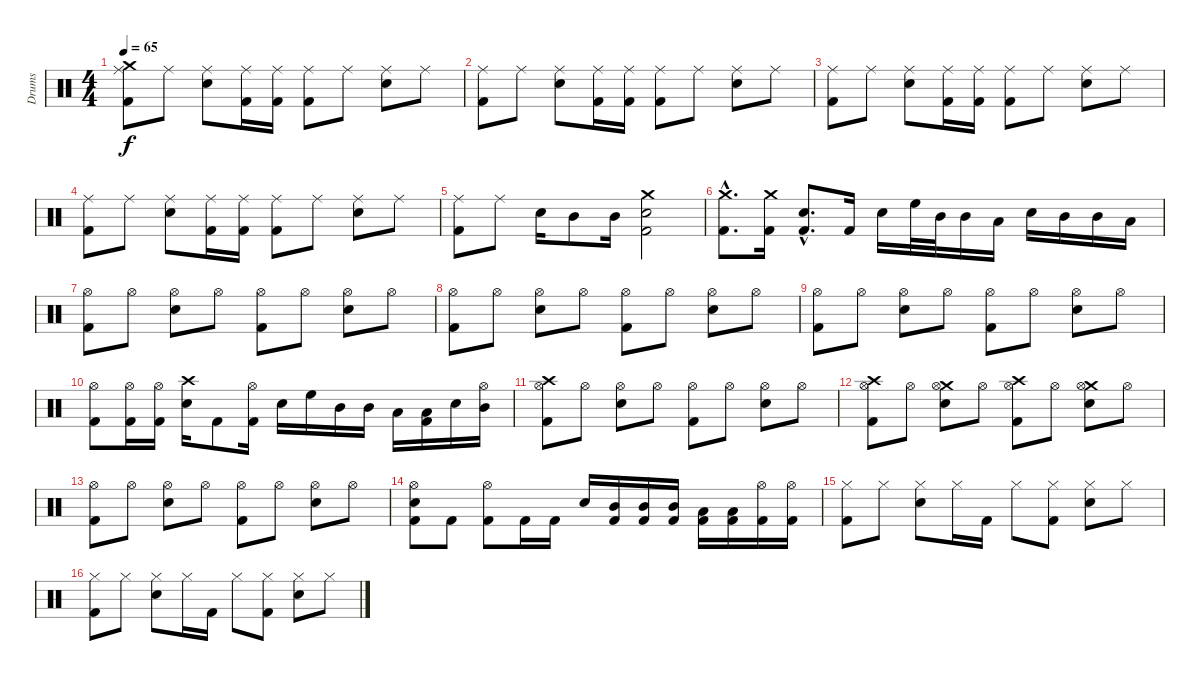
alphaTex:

\track ("Drums" "Drums") {instrument percussion}
\staff {score}
\articulation defaults
\ts (4 4)
\tempo 65
\clef neutral
\ks c
("Crash medium (hit)" "Ride (middle)" "Kick (hit) 2").8{dy f} "Ride (middle)".8 ("Ride (middle)" "Electric Snare (hit)").8 ("Ride (middle)" "Kick (hit) 2").16 ("Ride (middle)" "Kick (hit) 2").16 ("Ride (middle)" "Kick (hit) 2").8 "Ride (middle)".8 ("Ride (middle)" "Electric Snare (hit)").8 "Ride (middle)".8 |
("Ride (middle)" "Kick (hit) 2").8 "Ride (middle)".8 ("Ride (middle)" "Electric Snare (hit)").8 ("Ride (middle)" "Kick (hit) 2").16 ("Ride (middle)" "Kick (hit) 2").16 ("Ride (middle)" "Kick (hit) 2").8 "Ride (middle)".8 ("Ride (middle)" "Electric Snare (hit)").8 "Ride (middle)".8 |
("Ride (middle)" "Kick (hit) 2").8 "Ride (middle)".8 ("Ride (middle)" "Electric Snare (hit)").8 ("Ride (middle)" "Kick (hit) 2").16 ("Ride (middle)" "Kick (hit) 2").16 ("Ride (middle)" "Kick (hit) 2").8 "Ride (middle)".8 ("Ride (middle)" "Electric Snare (hit)").8 "Ride (middle)".8 |
("Ride (middle)" "Kick (hit) 2").8 "Ride (middle)".8 ("Ride (middle)" "Electric Snare (hit)").8 ("Ride (middle)" "Kick (hit) 2").16 ("Ride (middle)" "Kick (hit) 2").16 ("Ride (middle)" "Kick (hit) 2").8 "Ride (middle)".8 ("Ride (middle)" "Electric Snare (hit)").8 "Ride (middle)".8 |
("Ride (middle)" "Kick (hit) 2").8 "Ride (middle)".8 "Electric Snare (hit)".16 "Mid Tom (hit)".8 "Mid Tom (hit)".16 ("Crash medium (hit)" "Electric Snare (hit)" "Kick (hit) 2").2 |
("Crash medium (hit)"{hac} "Kick (hit) 2"{hac}).8{d} ("Crash medium (hit)" "Kick (hit) 2").16 ("Electric Snare (hit)"{hac} "Kick (hit) 2"{hac}).8{d} "Kick (hit) 2".16 "Electric Snare (hit)".16 "High Floor Tom (hit)".32 "Mid Tom (hit)".32 "Mid Tom (hit)".16 "Low Tom (hit)".16 "Electric Snare (hit)".16 "Mid Tom (hit)".16 "Mid Tom (hit)".16 "Low Tom (hit)".16 |
("Hi-Hat (open)" "Kick (hit) 2").8 "Hi-Hat (open)".8 ("Hi-Hat (open)" "Electric Snare (hit)").8 "Hi-Hat (open)".8 ("Hi-Hat (open)" "Kick (hit) 2").8 "Hi-Hat (open)".8 ("Hi-Hat (open)" "Electric Snare (hit)").8 "Hi-Hat (open)".8 |
("Hi-Hat (open)" "Kick (hit) 2").8 "Hi-Hat (open)".8 ("Hi-Hat (open)" "Electric Snare (hit)").8 "Hi-Hat (open)".8 ("Hi-Hat (open)" "Kick (hit) 2").8 "Hi-Hat (open)".8 ("Hi-Hat (open)" "Electric Snare (hit)").8 "Hi-Hat (open)".8 |
("Hi-Hat (open)" "Kick (hit) 2").8 "Hi-Hat (open)".8 ("Hi-Hat (open)" "Electric Snare (hit)").8 "Hi-Hat (open)".8 ("Hi-Hat (open)" "Kick (hit) 2").8 "Hi-Hat (open)".8 ("Hi-Hat (open)" "Electric Snare (hit)").8 "Hi-Hat (open)".8 |
("Hi-Hat (open)" "Kick (hit) 2").8 ("Hi-Hat (open)" "Kick (hit) 2").16 ("Hi-Hat (open)" "Kick (hit) 2").16 ("Crash high (hit)" "Electric Snare (hit)").16 "Kick (hit) 2".8 ("Hi-Hat (open)" "Kick (hit) 2").16 "Electric Snare (hit)".16 "High Floor Tom (hit)".16 "Mid Tom (hit)".16 "Mid Tom (hit)".16 "Low Tom (hit)".16 ("Low Tom (hit)" "Kick (hit) 2").16 "Electric Snare (hit)".16 ("Hi-Hat (open)" "Mid Tom (hit)").16 |
("Crash high (hit)" "Hi-Hat (open)" "Kick (hit) 2").8 "Hi-Hat (open)".8 ("Hi-Hat (open)" "Electric Snare (hit)").8 "Hi-Hat (open)".8 ("Hi-Hat (open)" "Kick (hit) 2").8 "Hi-Hat (open)".8 ("Hi-Hat (open)" "Electric Snare (hit)").8 "Hi-Hat (open)".8 |
("Crash high (hit)" "Hi-Hat (open)" "Kick (hit) 2").8 "Hi-Hat (open)".8 ("Crash medium (hit)" "Hi-Hat (open)" "Electric Snare (hit)").8 "Hi-Hat (open)".8 ("Crash high (hit)" "Hi-Hat (open)" "Kick (hit) 2").8 "Hi-Hat (open)".8 ("Crash medium (hit)" "Hi-Hat (open)" "Electric Snare (hit)").8 "Hi-Hat (open)".8 |
("Hi-Hat (open)" "Kick (hit) 2").8 "Hi-Hat (open)".8 ("Hi-Hat (open)" "Electric Snare (hit)").8 "Hi-Hat (open)".8 ("Hi-Hat (open)" "Kick (hit) 2").8 "Hi-Hat (open)".8 ("Hi-Hat (open)" "Electric Snare (hit)").8 "Hi-Hat (open)".8 |
("Hi-Hat (open)" "Electric Snare (hit)" "Kick (hit) 2").8 "Kick (hit) 2".8 ("Hi-Hat (open)" "Kick (hit) 2").8 "Kick (hit) 2".16 "Kick (hit) 2".16 "Electric Snare (hit)".16 ("Mid Tom (hit)" "Kick (hit) 2").16 ("Mid Tom (hit)" "Kick (hit) 2").16 ("Mid Tom (hit)" "Kick (hit) 2").16 ("Low Tom (hit)" "Kick (hit) 2").16 ("Low Tom (hit)" "Kick (hit) 2").16 ("Hi-Hat (open)" "Kick (hit) 2").16 ("Hi-Hat (open)" "Kick (hit) 2").16 |
("Hi-Hat (closed)" "Kick (hit) 2").8 "Hi-Hat (closed)".8 ("Hi-Hat (closed)" "Electric Snare (hit)").8 "Hi-Hat (closed)".16 "Kick (hit) 2".16 "Hi-Hat (closed)".8 ("Hi-Hat (closed)" "Kick (hit) 2").8 ("Hi-Hat (closed)" "Electric Snare (hit)").8 "Hi-Hat (closed)".8 |
("Hi-Hat (closed)" "Kick (hit) 2").8 "Hi-Hat (closed)".8 ("Hi-Hat (closed)" "Electric Snare (hit)").8 "Hi-Hat (closed)".16 "Kick (hit) 2".16 "Hi-Hat (closed)".8 ("Hi-Hat (closed)" "Kick (hit) 2").8 ("Hi-Hat (closed)" "Electric Snare (hit)").8 "Hi-Hat (closed)".8
